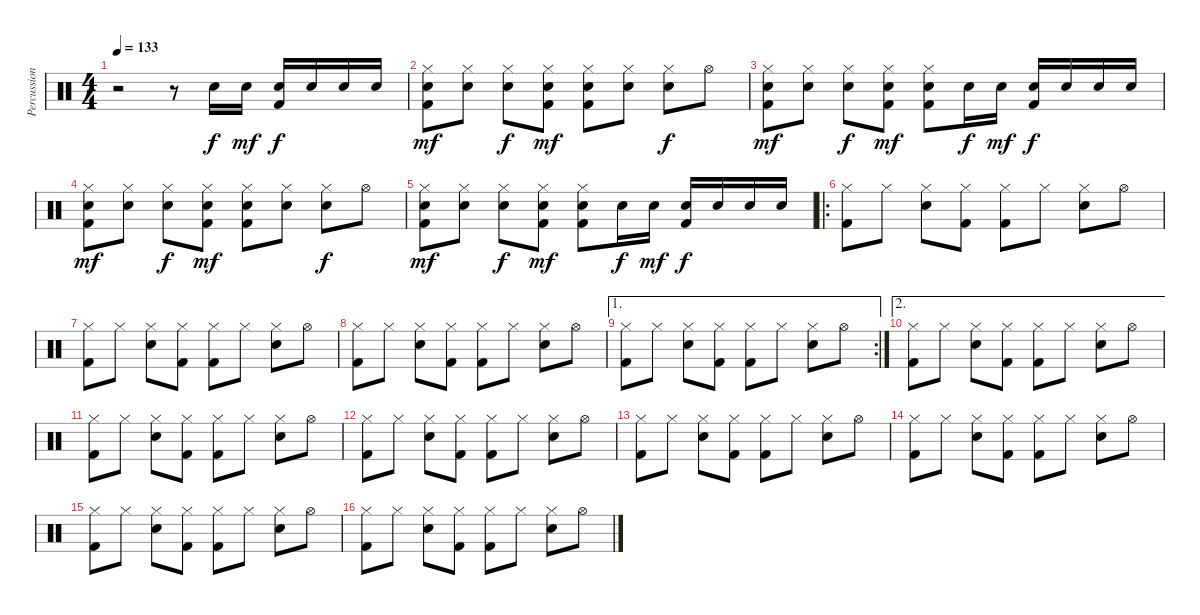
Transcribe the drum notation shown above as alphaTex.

\track ("Percussions" "Percussion") {instrument percussion}
\staff {score}
\articulation defaults
\ts (4 4)
\tempo 133
\clef neutral
\ks c
r.2{dy f volume 14} r.8 "Electric Snare (hit)".16 "Electric Snare (hit)".16{dy mf} ("Electric Snare (hit)" "Kick (hit) 2").16{dy f} "Electric Snare (hit)".16 "Snare (hit) 2".16 "Electric Snare (hit)".16 |
("Hi-Hat (closed)" "Snare (hit) 2" "Kick (hit) 2").8{dy mf} ("Hi-Hat (closed)" "Snare (hit) 2").8 ("Hi-Hat (closed)" "Electric Snare (hit)").8{dy f} ("Hi-Hat (closed)" "Snare (hit) 2" "Kick (hit) 2").8{dy mf} ("Hi-Hat (closed)" "Snare (hit) 2" "Kick (hit) 2").8 ("Hi-Hat (closed)" "Snare (hit) 2").8 ("Hi-Hat (closed)" "Electric Snare (hit)").8{dy f} "Hi-Hat (open)".8 |
("Hi-Hat (closed)" "Snare (hit) 2" "Kick (hit) 2").8{dy mf} ("Hi-Hat (closed)" "Snare (hit) 2").8 ("Hi-Hat (closed)" "Electric Snare (hit)").8{dy f} ("Hi-Hat (closed)" "Snare (hit) 2" "Kick (hit) 2").8{dy mf} ("Hi-Hat (closed)" "Snare (hit) 2" "Kick (hit) 2").8 "Electric Snare (hit)".16{dy f} "Electric Snare (hit)".16{dy mf} ("Electric Snare (hit)" "Kick (hit) 2").16{dy f} "Electric Snare (hit)".16 "Snare (hit) 2".16 "Electric Snare (hit)".16 |
("Hi-Hat (closed)" "Snare (hit) 2" "Kick (hit) 2").8{dy mf} ("Hi-Hat (closed)" "Snare (hit) 2").8 ("Hi-Hat (closed)" "Electric Snare (hit)").8{dy f} ("Hi-Hat (closed)" "Snare (hit) 2" "Kick (hit) 2").8{dy mf} ("Hi-Hat (closed)" "Snare (hit) 2" "Kick (hit) 2").8 ("Hi-Hat (closed)" "Snare (hit) 2").8 ("Hi-Hat (closed)" "Electric Snare (hit)").8{dy f} "Hi-Hat (open)".8 |
("Hi-Hat (closed)" "Snare (hit) 2" "Kick (hit) 2").8{dy mf} ("Hi-Hat (closed)" "Snare (hit) 2").8 ("Hi-Hat (closed)" "Electric Snare (hit)").8{dy f} ("Hi-Hat (closed)" "Snare (hit) 2" "Kick (hit) 2").8{dy mf} ("Hi-Hat (closed)" "Snare (hit) 2" "Kick (hit) 2").8 "Electric Snare (hit)".16{dy f} "Electric Snare (hit)".16{dy mf} ("Electric Snare (hit)" "Kick (hit) 2").16{dy f} "Electric Snare (hit)".16 "Snare (hit) 2".16 "Electric Snare (hit)".16 |
\ro
("Hi-Hat (closed)" "Kick (hit) 2").8 "Hi-Hat (closed)".8 ("Hi-Hat (closed)" "Electric Snare (hit)").8 ("Hi-Hat (closed)" "Kick (hit) 2").8 ("Hi-Hat (closed)" "Kick (hit) 2").8 "Hi-Hat (closed)".8 ("Hi-Hat (closed)" "Electric Snare (hit)").8 "Hi-Hat (open)".8 |
("Hi-Hat (closed)" "Kick (hit) 2").8 "Hi-Hat (closed)".8 ("Hi-Hat (closed)" "Electric Snare (hit)").8 ("Hi-Hat (closed)" "Kick (hit) 2").8 ("Hi-Hat (closed)" "Kick (hit) 2").8 "Hi-Hat (closed)".8 ("Hi-Hat (closed)" "Electric Snare (hit)").8 "Hi-Hat (open)".8 |
("Hi-Hat (closed)" "Kick (hit) 2").8 "Hi-Hat (closed)".8 ("Hi-Hat (closed)" "Electric Snare (hit)").8 ("Hi-Hat (closed)" "Kick (hit) 2").8 ("Hi-Hat (closed)" "Kick (hit) 2").8 "Hi-Hat (closed)".8 ("Hi-Hat (closed)" "Electric Snare (hit)").8 "Hi-Hat (open)".8 |
\ae 1
\rc 2
("Hi-Hat (closed)" "Kick (hit) 2").8 "Hi-Hat (closed)".8 ("Hi-Hat (closed)" "Electric Snare (hit)").8 ("Hi-Hat (closed)" "Kick (hit) 2").8 ("Hi-Hat (closed)" "Kick (hit) 2").8 "Hi-Hat (closed)".8 ("Hi-Hat (closed)" "Electric Snare (hit)").8 "Hi-Hat (open)".8 |
\ae 2
("Hi-Hat (closed)" "Kick (hit) 2").8 "Hi-Hat (closed)".8 ("Hi-Hat (closed)" "Electric Snare (hit)").8 ("Hi-Hat (closed)" "Kick (hit) 2").8 ("Hi-Hat (closed)" "Kick (hit) 2").8 "Hi-Hat (closed)".8 ("Hi-Hat (closed)" "Electric Snare (hit)").8 "Hi-Hat (open)".8 |
("Hi-Hat (closed)" "Kick (hit) 2").8 "Hi-Hat (closed)".8 ("Hi-Hat (closed)" "Electric Snare (hit)").8 ("Hi-Hat (closed)" "Kick (hit) 2").8 ("Hi-Hat (closed)" "Kick (hit) 2").8 "Hi-Hat (closed)".8 ("Hi-Hat (closed)" "Electric Snare (hit)").8 "Hi-Hat (open)".8 |
("Hi-Hat (closed)" "Kick (hit) 2").8 "Hi-Hat (closed)".8 ("Hi-Hat (closed)" "Electric Snare (hit)").8 ("Hi-Hat (closed)" "Kick (hit) 2").8 ("Hi-Hat (closed)" "Kick (hit) 2").8 "Hi-Hat (closed)".8 ("Hi-Hat (closed)" "Electric Snare (hit)").8 "Hi-Hat (open)".8 |
("Hi-Hat (closed)" "Kick (hit) 2").8 "Hi-Hat (closed)".8 ("Hi-Hat (closed)" "Electric Snare (hit)").8 ("Hi-Hat (closed)" "Kick (hit) 2").8 ("Hi-Hat (closed)" "Kick (hit) 2").8 "Hi-Hat (closed)".8 ("Hi-Hat (closed)" "Electric Snare (hit)").8 "Hi-Hat (open)".8 |
("Hi-Hat (closed)" "Kick (hit) 2").8 "Hi-Hat (closed)".8 ("Hi-Hat (closed)" "Electric Snare (hit)").8 ("Hi-Hat (closed)" "Kick (hit) 2").8 ("Hi-Hat (closed)" "Kick (hit) 2").8 "Hi-Hat (closed)".8 ("Hi-Hat (closed)" "Electric Snare (hit)").8 "Hi-Hat (open)".8 |
("Hi-Hat (closed)" "Kick (hit) 2").8 "Hi-Hat (closed)".8 ("Hi-Hat (closed)" "Electric Snare (hit)").8 ("Hi-Hat (closed)" "Kick (hit) 2").8 ("Hi-Hat (closed)" "Kick (hit) 2").8 "Hi-Hat (closed)".8 ("Hi-Hat (closed)" "Electric Snare (hit)").8 "Hi-Hat (open)".8 |
("Hi-Hat (closed)" "Kick (hit) 2").8 "Hi-Hat (closed)".8 ("Hi-Hat (closed)" "Electric Snare (hit)").8 ("Hi-Hat (closed)" "Kick (hit) 2").8 ("Hi-Hat (closed)" "Kick (hit) 2").8 "Hi-Hat (closed)".8 ("Hi-Hat (closed)" "Electric Snare (hit)").8 "Hi-Hat (open)".8
